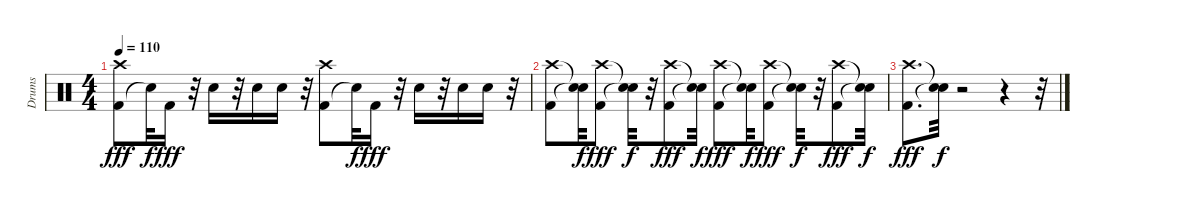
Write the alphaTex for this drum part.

\track ("Drums" "Drums") {instrument percussion}
\staff {score}
\articulation defaults
\ts (4 4)
\tempo 110
\clef neutral
\ks c
("Kick (hit) 2" "Crash high (hit)").8{dy fff} "Snare (hit)"{t}.32{dy f} "Kick (hit) 2".16{dy fff} r.32 "Snare (hit) 2".16 r.32 "Snare (hit) 2".16 "Snare (hit) 2".16 r.32 ("Kick (hit) 2" "Crash high (hit)").8 "Snare (hit)"{t}.32{dy f} "Kick (hit) 2".16{dy fff} r.32 "Snare (hit) 2".16 r.32 "Snare (hit) 2".16 "Snare (hit) 2".16 r.32 |
("Kick (hit) 2" "Crash high (hit)").8 ("Snare (hit)"{t} "Snare (hit)"{t}).32{dy f} ("Kick (hit) 2" "Crash high (hit)").8{dy fff} ("Snare (hit)"{t} "Snare (hit)"{t}).32{dy f} r.32 ("Kick (hit) 2" "Crash high (hit)").8{dy fff} ("Snare (hit)"{t} "Snare (hit)"{t}).32{dy f} ("Kick (hit) 2" "Crash high (hit)").8{dy fff} ("Snare (hit)"{t} "Snare (hit)"{t}).32{dy f} ("Kick (hit) 2" "Crash high (hit)").8{dy fff} ("Snare (hit)"{t} "Snare (hit)"{t}).32{dy f} r.32 ("Kick (hit) 2" "Crash high (hit)").8{dy fff} ("Snare (hit)"{t} "Snare (hit)"{t}).32{dy f} |
("Kick (hit) 2" "Crash high (hit)").8{d dy fff} ("Snare (hit)"{t} "Snare (hit)"{t}).32{dy f} r.2 r.4 r.32
